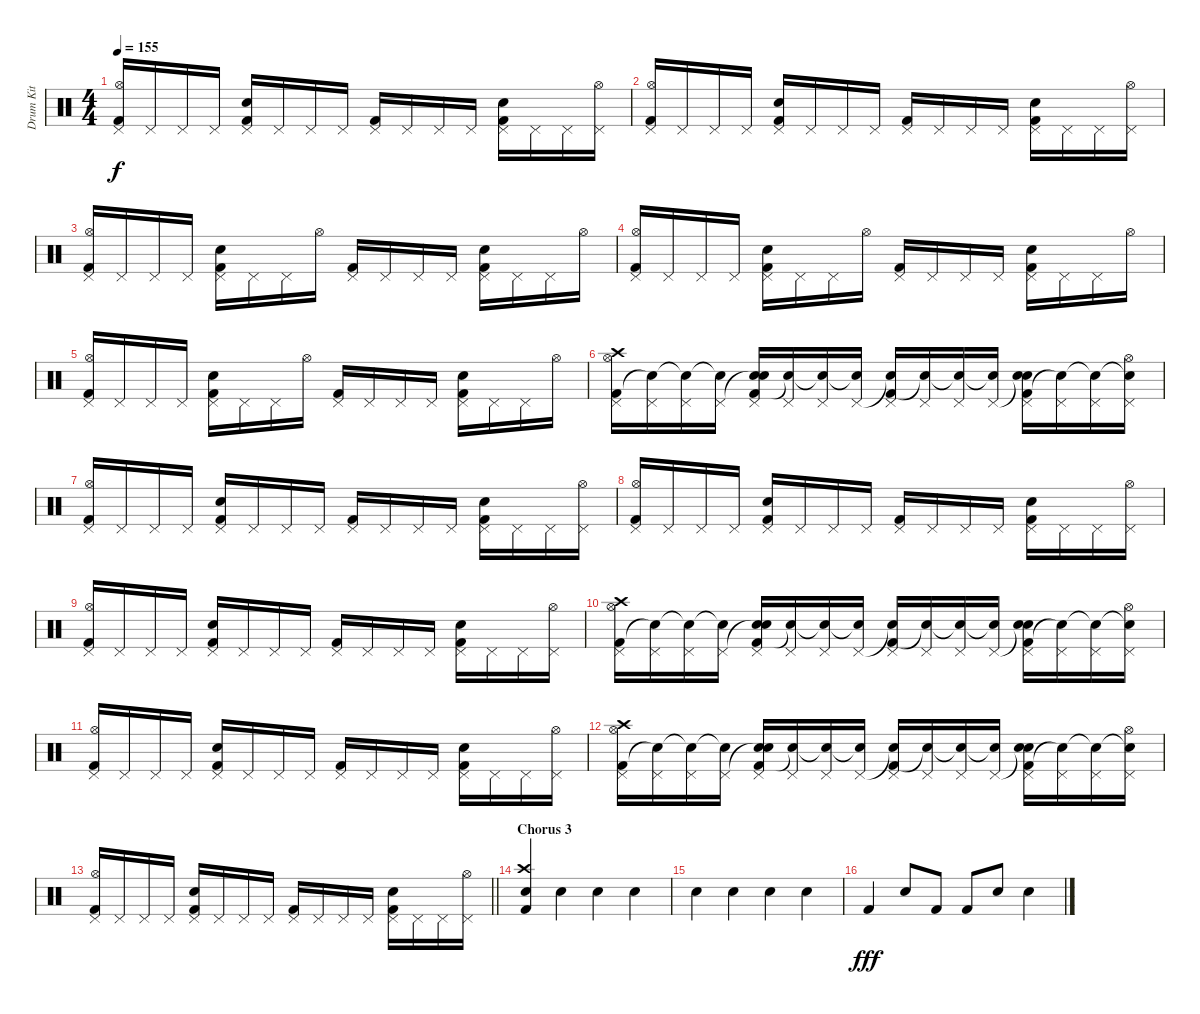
\track ("Drum Kit" "Drum Kit") {instrument percussion}
\staff {score}
\articulation defaults
\ts (4 4)
\tempo 155
\clef neutral
\ks c
("Kick (hit) 2" "Hi-Hat (open)" "Pedal Hi-Hat (hit)").16{dy f} "Pedal Hi-Hat (hit)".16 "Pedal Hi-Hat (hit)".16 "Pedal Hi-Hat (hit)".16 ("Kick (hit) 2" "Electric Snare (hit)" "Pedal Hi-Hat (hit)").16 "Pedal Hi-Hat (hit)".16 "Pedal Hi-Hat (hit)".16 "Pedal Hi-Hat (hit)".16 ("Kick (hit) 2" "Pedal Hi-Hat (hit)").16 "Pedal Hi-Hat (hit)".16 "Pedal Hi-Hat (hit)".16 "Pedal Hi-Hat (hit)".16 ("Kick (hit) 2" "Electric Snare (hit)" "Pedal Hi-Hat (hit)").16 "Pedal Hi-Hat (hit)".16 "Pedal Hi-Hat (hit)".16 ("Hi-Hat (open)" "Pedal Hi-Hat (hit)").16 |
("Kick (hit) 2" "Hi-Hat (open)" "Pedal Hi-Hat (hit)").16 "Pedal Hi-Hat (hit)".16 "Pedal Hi-Hat (hit)".16 "Pedal Hi-Hat (hit)".16 ("Kick (hit) 2" "Electric Snare (hit)" "Pedal Hi-Hat (hit)").16 "Pedal Hi-Hat (hit)".16 "Pedal Hi-Hat (hit)".16 "Pedal Hi-Hat (hit)".16 ("Kick (hit) 2" "Pedal Hi-Hat (hit)").16 "Pedal Hi-Hat (hit)".16 "Pedal Hi-Hat (hit)".16 "Pedal Hi-Hat (hit)".16 ("Kick (hit) 2" "Electric Snare (hit)" "Pedal Hi-Hat (hit)").16 "Pedal Hi-Hat (hit)".16 "Pedal Hi-Hat (hit)".16 ("Hi-Hat (open)" "Pedal Hi-Hat (hit)").16 |
("Kick (hit) 2" "Hi-Hat (open)" "Pedal Hi-Hat (hit)").16 "Pedal Hi-Hat (hit)".16 "Pedal Hi-Hat (hit)".16 "Pedal Hi-Hat (hit)".16 ("Kick (hit) 2" "Electric Snare (hit)" "Pedal Hi-Hat (hit)").16 "Pedal Hi-Hat (hit)".16 "Pedal Hi-Hat (hit)".16 "Hi-Hat (open)".16 ("Kick (hit) 2" "Pedal Hi-Hat (hit)").16 "Pedal Hi-Hat (hit)".16 "Pedal Hi-Hat (hit)".16 "Pedal Hi-Hat (hit)".16 ("Kick (hit) 2" "Electric Snare (hit)" "Pedal Hi-Hat (hit)").16 "Pedal Hi-Hat (hit)".16 "Pedal Hi-Hat (hit)".16 "Hi-Hat (open)".16 |
("Kick (hit) 2" "Hi-Hat (open)" "Pedal Hi-Hat (hit)").16 "Pedal Hi-Hat (hit)".16 "Pedal Hi-Hat (hit)".16 "Pedal Hi-Hat (hit)".16 ("Kick (hit) 2" "Electric Snare (hit)" "Pedal Hi-Hat (hit)").16 "Pedal Hi-Hat (hit)".16 "Pedal Hi-Hat (hit)".16 "Hi-Hat (open)".16 ("Kick (hit) 2" "Pedal Hi-Hat (hit)").16 "Pedal Hi-Hat (hit)".16 "Pedal Hi-Hat (hit)".16 "Pedal Hi-Hat (hit)".16 ("Kick (hit) 2" "Electric Snare (hit)" "Pedal Hi-Hat (hit)").16 "Pedal Hi-Hat (hit)".16 "Pedal Hi-Hat (hit)".16 "Hi-Hat (open)".16 |
("Kick (hit) 2" "Hi-Hat (open)" "Pedal Hi-Hat (hit)").16 "Pedal Hi-Hat (hit)".16 "Pedal Hi-Hat (hit)".16 "Pedal Hi-Hat (hit)".16 ("Kick (hit) 2" "Electric Snare (hit)" "Pedal Hi-Hat (hit)").16 "Pedal Hi-Hat (hit)".16 "Pedal Hi-Hat (hit)".16 "Hi-Hat (open)".16 ("Kick (hit) 2" "Pedal Hi-Hat (hit)").16 "Pedal Hi-Hat (hit)".16 "Pedal Hi-Hat (hit)".16 "Pedal Hi-Hat (hit)".16 ("Kick (hit) 2" "Electric Snare (hit)" "Pedal Hi-Hat (hit)").16 "Pedal Hi-Hat (hit)".16 "Pedal Hi-Hat (hit)".16 "Hi-Hat (open)".16 |
("Kick (hit) 2" "Crash high (hit)" "Hi-Hat (open)" "Pedal Hi-Hat (hit)").16 ("Snare (hit)"{t} "Pedal Hi-Hat (hit)").16 ("Snare (hit)"{t} "Pedal Hi-Hat (hit)").16 ("Snare (hit)"{t} "Pedal Hi-Hat (hit)").16 ("Kick (hit) 2" "Snare (hit)"{t} "Electric Snare (hit)" "Pedal Hi-Hat (hit)").16 ("Snare (hit)"{t} "Pedal Hi-Hat (hit)").16 ("Snare (hit)"{t} "Pedal Hi-Hat (hit)").16 ("Snare (hit)"{t} "Pedal Hi-Hat (hit)").16 ("Kick (hit) 2" "Snare (hit)"{t} "Pedal Hi-Hat (hit)").16 ("Snare (hit)"{t} "Pedal Hi-Hat (hit)").16 ("Snare (hit)"{t} "Pedal Hi-Hat (hit)").16 ("Snare (hit)"{t} "Pedal Hi-Hat (hit)").16 ("Kick (hit) 2" "Snare (hit)"{t} "Electric Snare (hit)" "Pedal Hi-Hat (hit)").16 ("Snare (hit)"{t} "Pedal Hi-Hat (hit)").16 ("Snare (hit)"{t} "Pedal Hi-Hat (hit)").16 ("Snare (hit)"{t} "Hi-Hat (open)" "Pedal Hi-Hat (hit)").16 |
("Kick (hit) 2" "Hi-Hat (open)" "Pedal Hi-Hat (hit)").16 "Pedal Hi-Hat (hit)".16 "Pedal Hi-Hat (hit)".16 "Pedal Hi-Hat (hit)".16 ("Kick (hit) 2" "Electric Snare (hit)" "Pedal Hi-Hat (hit)").16 "Pedal Hi-Hat (hit)".16 "Pedal Hi-Hat (hit)".16 "Pedal Hi-Hat (hit)".16 ("Kick (hit) 2" "Pedal Hi-Hat (hit)").16 "Pedal Hi-Hat (hit)".16 "Pedal Hi-Hat (hit)".16 "Pedal Hi-Hat (hit)".16 ("Kick (hit) 2" "Electric Snare (hit)" "Pedal Hi-Hat (hit)").16 "Pedal Hi-Hat (hit)".16 "Pedal Hi-Hat (hit)".16 ("Hi-Hat (open)" "Pedal Hi-Hat (hit)").16 |
("Kick (hit) 2" "Hi-Hat (open)" "Pedal Hi-Hat (hit)").16 "Pedal Hi-Hat (hit)".16 "Pedal Hi-Hat (hit)".16 "Pedal Hi-Hat (hit)".16 ("Kick (hit) 2" "Electric Snare (hit)" "Pedal Hi-Hat (hit)").16 "Pedal Hi-Hat (hit)".16 "Pedal Hi-Hat (hit)".16 "Pedal Hi-Hat (hit)".16 ("Kick (hit) 2" "Pedal Hi-Hat (hit)").16 "Pedal Hi-Hat (hit)".16 "Pedal Hi-Hat (hit)".16 "Pedal Hi-Hat (hit)".16 ("Kick (hit) 2" "Electric Snare (hit)" "Pedal Hi-Hat (hit)").16 "Pedal Hi-Hat (hit)".16 "Pedal Hi-Hat (hit)".16 ("Hi-Hat (open)" "Pedal Hi-Hat (hit)").16 |
("Kick (hit) 2" "Hi-Hat (open)" "Pedal Hi-Hat (hit)").16 "Pedal Hi-Hat (hit)".16 "Pedal Hi-Hat (hit)".16 "Pedal Hi-Hat (hit)".16 ("Kick (hit) 2" "Electric Snare (hit)" "Pedal Hi-Hat (hit)").16 "Pedal Hi-Hat (hit)".16 "Pedal Hi-Hat (hit)".16 "Pedal Hi-Hat (hit)".16 ("Kick (hit) 2" "Pedal Hi-Hat (hit)").16 "Pedal Hi-Hat (hit)".16 "Pedal Hi-Hat (hit)".16 "Pedal Hi-Hat (hit)".16 ("Kick (hit) 2" "Electric Snare (hit)" "Pedal Hi-Hat (hit)").16 "Pedal Hi-Hat (hit)".16 "Pedal Hi-Hat (hit)".16 ("Hi-Hat (open)" "Pedal Hi-Hat (hit)").16 |
("Kick (hit) 2" "Crash high (hit)" "Hi-Hat (open)" "Pedal Hi-Hat (hit)").16 ("Snare (hit)"{t} "Pedal Hi-Hat (hit)").16 ("Snare (hit)"{t} "Pedal Hi-Hat (hit)").16 ("Snare (hit)"{t} "Pedal Hi-Hat (hit)").16 ("Kick (hit) 2" "Snare (hit)"{t} "Electric Snare (hit)" "Pedal Hi-Hat (hit)").16 ("Snare (hit)"{t} "Pedal Hi-Hat (hit)").16 ("Snare (hit)"{t} "Pedal Hi-Hat (hit)").16 ("Snare (hit)"{t} "Pedal Hi-Hat (hit)").16 ("Kick (hit) 2" "Snare (hit)"{t} "Pedal Hi-Hat (hit)").16 ("Snare (hit)"{t} "Pedal Hi-Hat (hit)").16 ("Snare (hit)"{t} "Pedal Hi-Hat (hit)").16 ("Snare (hit)"{t} "Pedal Hi-Hat (hit)").16 ("Kick (hit) 2" "Snare (hit)"{t} "Electric Snare (hit)" "Pedal Hi-Hat (hit)").16 ("Snare (hit)"{t} "Pedal Hi-Hat (hit)").16 ("Snare (hit)"{t} "Pedal Hi-Hat (hit)").16 ("Snare (hit)"{t} "Hi-Hat (open)" "Pedal Hi-Hat (hit)").16 |
("Kick (hit) 2" "Hi-Hat (open)" "Pedal Hi-Hat (hit)").16 "Pedal Hi-Hat (hit)".16 "Pedal Hi-Hat (hit)".16 "Pedal Hi-Hat (hit)".16 ("Kick (hit) 2" "Electric Snare (hit)" "Pedal Hi-Hat (hit)").16 "Pedal Hi-Hat (hit)".16 "Pedal Hi-Hat (hit)".16 "Pedal Hi-Hat (hit)".16 ("Kick (hit) 2" "Pedal Hi-Hat (hit)").16 "Pedal Hi-Hat (hit)".16 "Pedal Hi-Hat (hit)".16 "Pedal Hi-Hat (hit)".16 ("Kick (hit) 2" "Electric Snare (hit)" "Pedal Hi-Hat (hit)").16 "Pedal Hi-Hat (hit)".16 "Pedal Hi-Hat (hit)".16 ("Hi-Hat (open)" "Pedal Hi-Hat (hit)").16 |
("Kick (hit) 2" "Crash high (hit)" "Hi-Hat (open)" "Pedal Hi-Hat (hit)").16 ("Snare (hit)"{t} "Pedal Hi-Hat (hit)").16 ("Snare (hit)"{t} "Pedal Hi-Hat (hit)").16 ("Snare (hit)"{t} "Pedal Hi-Hat (hit)").16 ("Kick (hit) 2" "Snare (hit)"{t} "Electric Snare (hit)" "Pedal Hi-Hat (hit)").16 ("Snare (hit)"{t} "Pedal Hi-Hat (hit)").16 ("Snare (hit)"{t} "Pedal Hi-Hat (hit)").16 ("Snare (hit)"{t} "Pedal Hi-Hat (hit)").16 ("Kick (hit) 2" "Snare (hit)"{t} "Pedal Hi-Hat (hit)").16 ("Snare (hit)"{t} "Pedal Hi-Hat (hit)").16 ("Snare (hit)"{t} "Pedal Hi-Hat (hit)").16 ("Snare (hit)"{t} "Pedal Hi-Hat (hit)").16 ("Kick (hit) 2" "Snare (hit)"{t} "Electric Snare (hit)" "Pedal Hi-Hat (hit)").16 ("Snare (hit)"{t} "Pedal Hi-Hat (hit)").16 ("Snare (hit)"{t} "Pedal Hi-Hat (hit)").16 ("Snare (hit)"{t} "Hi-Hat (open)" "Pedal Hi-Hat (hit)").16 |
\barLineRight lightlight
("Kick (hit) 2" "Hi-Hat (open)" "Pedal Hi-Hat (hit)").16 "Pedal Hi-Hat (hit)".16 "Pedal Hi-Hat (hit)".16 "Pedal Hi-Hat (hit)".16 ("Kick (hit) 2" "Electric Snare (hit)" "Pedal Hi-Hat (hit)").16 "Pedal Hi-Hat (hit)".16 "Pedal Hi-Hat (hit)".16 "Pedal Hi-Hat (hit)".16 ("Kick (hit) 2" "Pedal Hi-Hat (hit)").16 "Pedal Hi-Hat (hit)".16 "Pedal Hi-Hat (hit)".16 "Pedal Hi-Hat (hit)".16 ("Kick (hit) 2" "Electric Snare (hit)" "Pedal Hi-Hat (hit)").16 "Pedal Hi-Hat (hit)".16 "Pedal Hi-Hat (hit)".16 ("Hi-Hat (open)" "Pedal Hi-Hat (hit)").16 |
\section ("" "Chorus 3")
("Crash high (hit)" "Kick (hit) 2" "Snare (hit) 2").4 "Snare (hit) 2".4 "Snare (hit) 2".4 "Snare (hit) 2".4 |
"Snare (hit) 2".4 "Snare (hit) 2".4 "Snare (hit) 2".4 "Snare (hit) 2".4 |
"Kick (hit) 2".4{dy fff} "Snare (hit) 2".8 "Kick (hit) 2".8 "Kick (hit) 2".8 "Snare (hit) 2".8 "Snare (hit) 2".4
